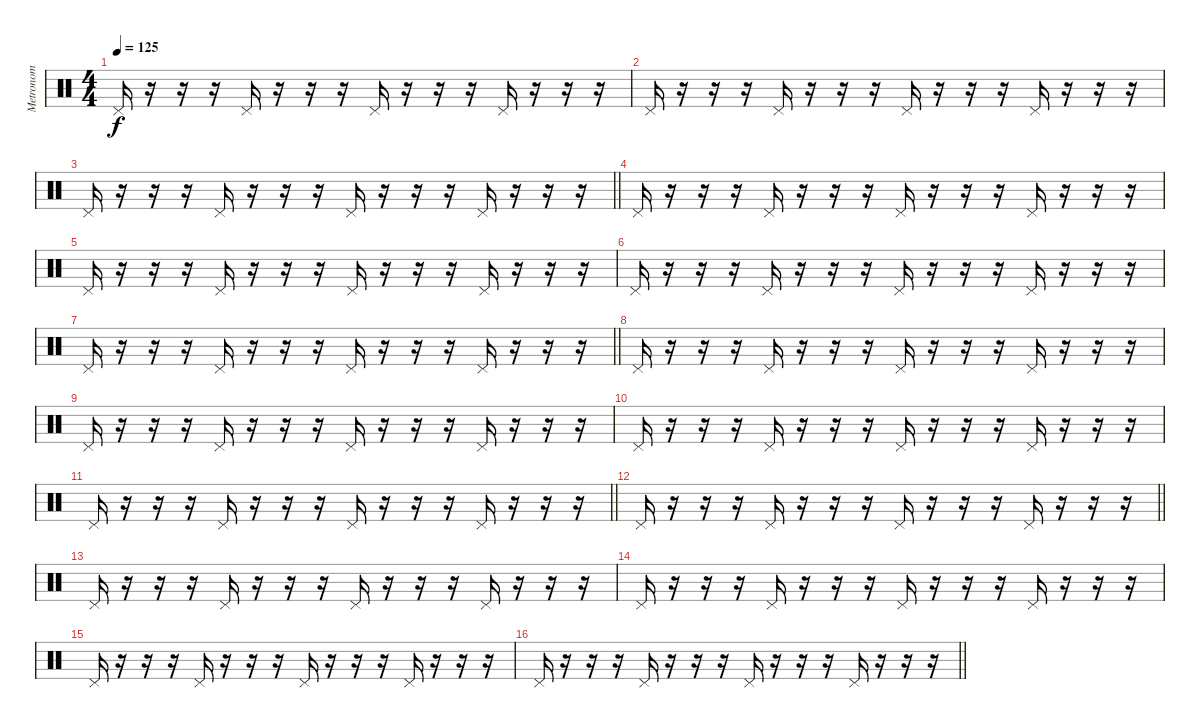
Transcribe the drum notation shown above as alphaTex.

\track ("Metronom" "Metronom") {instrument percussion}
\staff {score}
\articulation defaults
\ts (4 4)
\tempo 125
\clef neutral
\ks c "Pedal Hi-Hat (hit)".16{dy f}
r.16 r.16 r.16 "Pedal Hi-Hat (hit)".16 r.16 r.16 r.16 "Pedal Hi-Hat (hit)".16 r.16 r.16 r.16 "Pedal Hi-Hat (hit)".16 r.16 r.16 r.16 |
"Pedal Hi-Hat (hit)".16 r.16 r.16 r.16 "Pedal Hi-Hat (hit)".16 r.16 r.16 r.16 "Pedal Hi-Hat (hit)".16 r.16 r.16 r.16 "Pedal Hi-Hat (hit)".16 r.16 r.16 r.16 |
\barLineRight lightlight "Pedal Hi-Hat (hit)".16
r.16 r.16 r.16 "Pedal Hi-Hat (hit)".16 r.16 r.16 r.16 "Pedal Hi-Hat (hit)".16 r.16 r.16 r.16 "Pedal Hi-Hat (hit)".16 r.16 r.16 r.16 |
"Pedal Hi-Hat (hit)".16 r.16 r.16 r.16 "Pedal Hi-Hat (hit)".16 r.16 r.16 r.16 "Pedal Hi-Hat (hit)".16 r.16 r.16 r.16 "Pedal Hi-Hat (hit)".16 r.16 r.16 r.16 |
"Pedal Hi-Hat (hit)".16 r.16 r.16 r.16 "Pedal Hi-Hat (hit)".16 r.16 r.16 r.16 "Pedal Hi-Hat (hit)".16 r.16 r.16 r.16 "Pedal Hi-Hat (hit)".16 r.16 r.16 r.16 |
"Pedal Hi-Hat (hit)".16 r.16 r.16 r.16 "Pedal Hi-Hat (hit)".16 r.16 r.16 r.16 "Pedal Hi-Hat (hit)".16 r.16 r.16 r.16 "Pedal Hi-Hat (hit)".16 r.16 r.16 r.16 |
\barLineRight lightlight "Pedal Hi-Hat (hit)".16
r.16 r.16 r.16 "Pedal Hi-Hat (hit)".16 r.16 r.16 r.16 "Pedal Hi-Hat (hit)".16 r.16 r.16 r.16 "Pedal Hi-Hat (hit)".16 r.16 r.16 r.16 |
"Pedal Hi-Hat (hit)".16 r.16 r.16 r.16 "Pedal Hi-Hat (hit)".16 r.16 r.16 r.16 "Pedal Hi-Hat (hit)".16 r.16 r.16 r.16 "Pedal Hi-Hat (hit)".16 r.16 r.16 r.16 |
"Pedal Hi-Hat (hit)".16 r.16 r.16 r.16 "Pedal Hi-Hat (hit)".16 r.16 r.16 r.16 "Pedal Hi-Hat (hit)".16 r.16 r.16 r.16 "Pedal Hi-Hat (hit)".16 r.16 r.16 r.16 |
"Pedal Hi-Hat (hit)".16 r.16 r.16 r.16 "Pedal Hi-Hat (hit)".16 r.16 r.16 r.16 "Pedal Hi-Hat (hit)".16 r.16 r.16 r.16 "Pedal Hi-Hat (hit)".16 r.16 r.16 r.16 |
\barLineRight lightlight "Pedal Hi-Hat (hit)".16
r.16 r.16 r.16 "Pedal Hi-Hat (hit)".16 r.16 r.16 r.16 "Pedal Hi-Hat (hit)".16 r.16 r.16 r.16 "Pedal Hi-Hat (hit)".16 r.16 r.16 r.16 |
\barLineRight lightlight "Pedal Hi-Hat (hit)".16
r.16 r.16 r.16 "Pedal Hi-Hat (hit)".16 r.16 r.16 r.16 "Pedal Hi-Hat (hit)".16 r.16 r.16 r.16 "Pedal Hi-Hat (hit)".16 r.16 r.16 r.16 |
\section ("" "")
"Pedal Hi-Hat (hit)".16 r.16 r.16 r.16 "Pedal Hi-Hat (hit)".16 r.16 r.16 r.16 "Pedal Hi-Hat (hit)".16 r.16 r.16 r.16 "Pedal Hi-Hat (hit)".16 r.16 r.16 r.16 |
"Pedal Hi-Hat (hit)".16 r.16 r.16 r.16 "Pedal Hi-Hat (hit)".16 r.16 r.16 r.16 "Pedal Hi-Hat (hit)".16 r.16 r.16 r.16 "Pedal Hi-Hat (hit)".16 r.16 r.16 r.16 |
"Pedal Hi-Hat (hit)".16 r.16 r.16 r.16 "Pedal Hi-Hat (hit)".16 r.16 r.16 r.16 "Pedal Hi-Hat (hit)".16 r.16 r.16 r.16 "Pedal Hi-Hat (hit)".16 r.16 r.16 r.16 |
\barLineRight lightlight "Pedal Hi-Hat (hit)".16
r.16 r.16 r.16 "Pedal Hi-Hat (hit)".16 r.16 r.16 r.16 "Pedal Hi-Hat (hit)".16 r.16 r.16 r.16 "Pedal Hi-Hat (hit)".16 r.16 r.16 r.16
